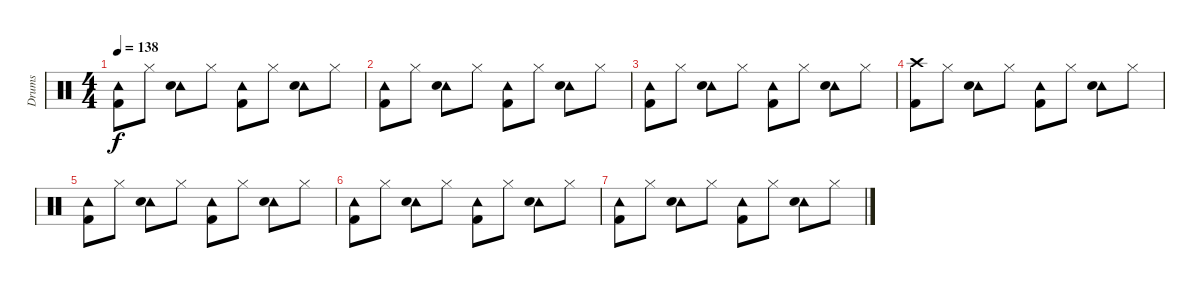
\track ("Drums" "Drums") {instrument percussion}
\staff {score}
\articulation defaults
\ts (4 4)
\tempo 138
\clef neutral
\ks c
("Tambourine (hit)" "Kick (hit) 2").8{dy f} "Hi-Hat (closed)".8 ("Tambourine (hit)" "Snare (hit) 2").8 "Hi-Hat (closed)".8 ("Tambourine (hit)" "Kick (hit) 2").8 "Hi-Hat (closed)".8 ("Tambourine (hit)" "Snare (hit) 2").8 "Hi-Hat (closed)".8 |
("Tambourine (hit)" "Kick (hit) 2").8 "Hi-Hat (closed)".8 ("Tambourine (hit)" "Snare (hit) 2").8 "Hi-Hat (closed)".8 ("Tambourine (hit)" "Kick (hit) 2").8 "Hi-Hat (closed)".8 ("Tambourine (hit)" "Snare (hit) 2").8 "Hi-Hat (closed)".8 |
("Tambourine (hit)" "Kick (hit) 2").8 "Hi-Hat (closed)".8 ("Tambourine (hit)" "Snare (hit) 2").8 "Hi-Hat (closed)".8 ("Tambourine (hit)" "Kick (hit) 2").8 "Hi-Hat (closed)".8 ("Tambourine (hit)" "Snare (hit) 2").8 "Hi-Hat (closed)".8 |
("Crash high (hit)" "Kick (hit) 2").8 "Hi-Hat (closed)".8 ("Tambourine (hit)" "Snare (hit) 2").8 "Hi-Hat (closed)".8 ("Tambourine (hit)" "Kick (hit) 2").8 "Hi-Hat (closed)".8 ("Tambourine (hit)" "Snare (hit) 2").8 "Hi-Hat (closed)".8 |
("Tambourine (hit)" "Kick (hit) 2").8 "Hi-Hat (closed)".8 ("Tambourine (hit)" "Snare (hit) 2").8 "Hi-Hat (closed)".8 ("Tambourine (hit)" "Kick (hit) 2").8 "Hi-Hat (closed)".8 ("Tambourine (hit)" "Snare (hit) 2").8 "Hi-Hat (closed)".8 |
("Tambourine (hit)" "Kick (hit) 2").8 "Hi-Hat (closed)".8 ("Tambourine (hit)" "Snare (hit) 2").8 "Hi-Hat (closed)".8 ("Tambourine (hit)" "Kick (hit) 2").8 "Hi-Hat (closed)".8 ("Tambourine (hit)" "Snare (hit) 2").8 "Hi-Hat (closed)".8 |
("Tambourine (hit)" "Kick (hit) 2").8 "Hi-Hat (closed)".8 ("Tambourine (hit)" "Snare (hit) 2").8 "Hi-Hat (closed)".8 ("Tambourine (hit)" "Kick (hit) 2").8 "Hi-Hat (closed)".8 ("Tambourine (hit)" "Snare (hit) 2").8 "Hi-Hat (closed)".8
